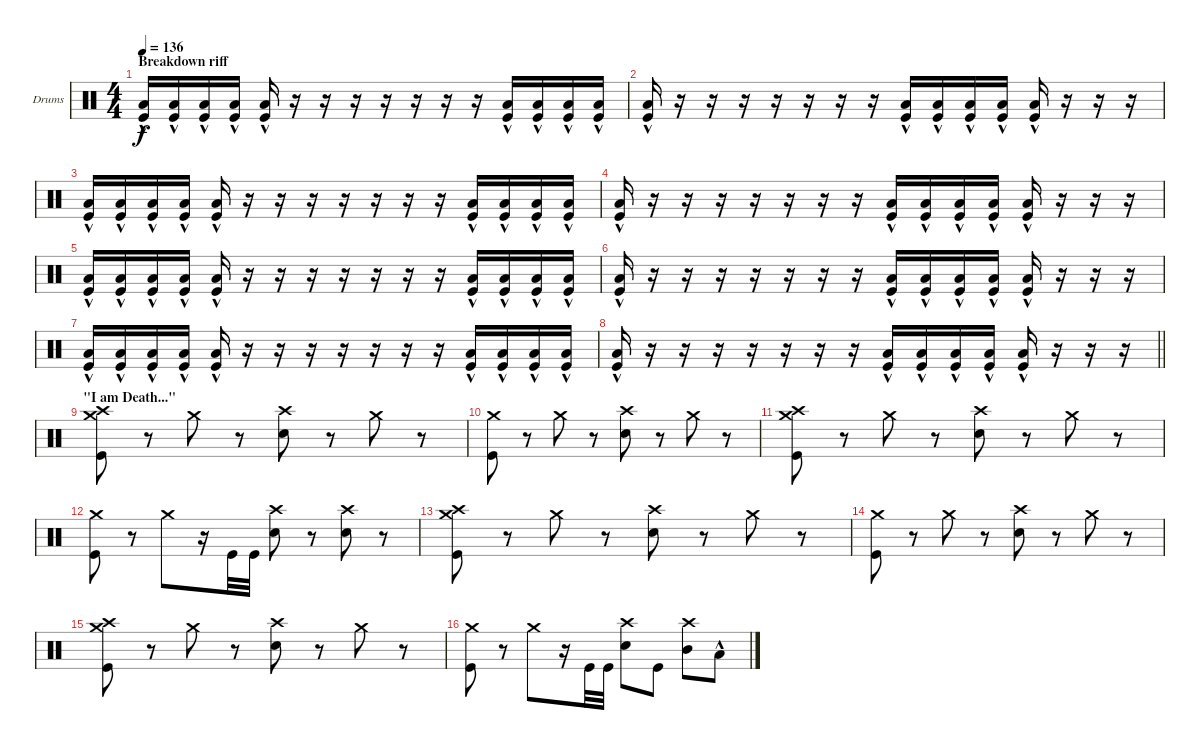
\bracketExtendMode groupsimilarinstruments
\firstSystemTrackNameOrientation horizontal
\otherSystemsTrackNameOrientation horizontal
\track ("Drumkit" "Drums") {instrument percussion}
\staff {score}
\articulation defaults
\ts (4 4)
\section ("" "Breakdown riff")
\tempo 136
\clef neutral
\scale
0.474178
\ks c
("Low Tom (hit)"{hac} "Kick (hit)").16{dy f} ("Low Tom (hit)"{hac} "Kick (hit)").16 ("Low Tom (hit)"{hac} "Kick (hit)").16 ("Low Tom (hit)"{hac} "Kick (hit)").16 ("Low Tom (hit)"{hac} "Kick (hit)").16 r.16 r.16 r.16 r.16 r.16 r.16 r.16 ("Low Tom (hit)"{hac} "Kick (hit)").16 ("Low Tom (hit)"{hac} "Kick (hit)").16 ("Low Tom (hit)"{hac} "Kick (hit)").16 ("Low Tom (hit)"{hac} "Kick (hit)").16 |
\scale
0.262911 ("Low Tom (hit)"{hac} "Kick (hit)").16 r.16 r.16 r.16 r.16 r.16 r.16 r.16 ("Low Tom (hit)"{hac} "Kick (hit)").16 ("Low Tom (hit)"{hac} "Kick (hit)").16 ("Low Tom (hit)"{hac} "Kick (hit)").16 ("Low Tom (hit)"{hac} "Kick (hit)").16 ("Low Tom (hit)"{hac} "Kick (hit)").16 r.16 r.16 r.16 |
\scale
0.262911 ("Low Tom (hit)"{hac} "Kick (hit)").16 ("Low Tom (hit)"{hac} "Kick (hit)").16 ("Low Tom (hit)"{hac} "Kick (hit)").16 ("Low Tom (hit)"{hac} "Kick (hit)").16 ("Low Tom (hit)"{hac} "Kick (hit)").16 r.16 r.16 r.16 r.16 r.16 r.16 r.16 ("Low Tom (hit)"{hac} "Kick (hit)").16 ("Low Tom (hit)"{hac} "Kick (hit)").16 ("Low Tom (hit)"{hac} "Kick (hit)").16 ("Low Tom (hit)"{hac} "Kick (hit)").16 |
\scale
0.333333 ("Low Tom (hit)"{hac} "Kick (hit)").16 r.16 r.16 r.16 r.16 r.16 r.16 r.16 ("Low Tom (hit)"{hac} "Kick (hit)").16 ("Low Tom (hit)"{hac} "Kick (hit)").16 ("Low Tom (hit)"{hac} "Kick (hit)").16 ("Low Tom (hit)"{hac} "Kick (hit)").16 ("Low Tom (hit)"{hac} "Kick (hit)").16 r.16 r.16 r.16 |
\scale
0.333333 ("Low Tom (hit)"{hac} "Kick (hit)").16 ("Low Tom (hit)"{hac} "Kick (hit)").16 ("Low Tom (hit)"{hac} "Kick (hit)").16 ("Low Tom (hit)"{hac} "Kick (hit)").16 ("Low Tom (hit)"{hac} "Kick (hit)").16 r.16 r.16 r.16 r.16 r.16 r.16 r.16 ("Low Tom (hit)"{hac} "Kick (hit)").16 ("Low Tom (hit)"{hac} "Kick (hit)").16 ("Low Tom (hit)"{hac} "Kick (hit)").16 ("Low Tom (hit)"{hac} "Kick (hit)").16 |
\scale
0.333333 ("Low Tom (hit)"{hac} "Kick (hit)").16 r.16 r.16 r.16 r.16 r.16 r.16 r.16 ("Low Tom (hit)"{hac} "Kick (hit)").16 ("Low Tom (hit)"{hac} "Kick (hit)").16 ("Low Tom (hit)"{hac} "Kick (hit)").16 ("Low Tom (hit)"{hac} "Kick (hit)").16 ("Low Tom (hit)"{hac} "Kick (hit)").16 r.16 r.16 r.16 |
\scale
0.333333 ("Low Tom (hit)"{hac} "Kick (hit)").16 ("Low Tom (hit)"{hac} "Kick (hit)").16 ("Low Tom (hit)"{hac} "Kick (hit)").16 ("Low Tom (hit)"{hac} "Kick (hit)").16 ("Low Tom (hit)"{hac} "Kick (hit)").16 r.16 r.16 r.16 r.16 r.16 r.16 r.16 ("Low Tom (hit)"{hac} "Kick (hit)").16 ("Low Tom (hit)"{hac} "Kick (hit)").16 ("Low Tom (hit)"{hac} "Kick (hit)").16 ("Low Tom (hit)"{hac} "Kick (hit)").16 |
\scale
0.333333
\barLineRight lightlight
("Low Tom (hit)"{hac} "Kick (hit)").16 r.16 r.16 r.16 r.16 r.16 r.16 r.16 ("Low Tom (hit)"{hac} "Kick (hit)").16 ("Low Tom (hit)"{hac} "Kick (hit)").16 ("Low Tom (hit)"{hac} "Kick (hit)").16 ("Low Tom (hit)"{hac} "Kick (hit)").16 ("Low Tom (hit)"{hac} "Kick (hit)").16 r.16 r.16 r.16 |
\section ("" "\"I am Death...\"")
\scale
0.333333 ("Kick (hit)" "Crash medium (hit)" "Crash high (hit)").8 r.8 "Crash medium (hit)".8 r.8 ("Snare (hit) 2" "Crash high (hit)").8 r.8 "Crash medium (hit)".8 r.8 |
\scale
0.333333 ("Kick (hit)" "Crash medium (hit)").8 r.8 "Crash medium (hit)".8 r.8 ("Snare (hit) 2" "Crash high (hit)").8 r.8 "Crash medium (hit)".8 r.8 |
\scale
0.333333 ("Kick (hit)" "Crash medium (hit)" "Crash high (hit)").8 r.8 "Crash medium (hit)".8 r.8 ("Snare (hit) 2" "Crash high (hit)").8 r.8 "Crash medium (hit)".8 r.8 |
\scale
0.333333 ("Kick (hit)" "Crash medium (hit)").8 r.8 "Crash medium (hit)".8 r.16 "Kick (hit)".32 "Kick (hit)".32 ("Snare (hit) 2" "Crash high (hit)").8 r.8 ("Snare (hit) 2" "Crash high (hit)").8 r.8 |
\scale
0.333333 ("Kick (hit)" "Crash medium (hit)" "Crash high (hit)").8 r.8 "Crash medium (hit)".8 r.8 ("Snare (hit) 2" "Crash high (hit)").8 r.8 "Crash medium (hit)".8 r.8 |
\scale
0.333333 ("Kick (hit)" "Crash medium (hit)").8 r.8 "Crash medium (hit)".8 r.8 ("Snare (hit) 2" "Crash high (hit)").8 r.8 "Crash medium (hit)".8 r.8 |
\scale
0.333333 ("Kick (hit)" "Crash medium (hit)" "Crash high (hit)").8 r.8 "Crash medium (hit)".8 r.8 ("Snare (hit) 2" "Crash high (hit)").8 r.8 "Crash medium (hit)".8 r.8 |
\scale
0.333333 ("Kick (hit)" "Crash medium (hit)").8 r.8 "Crash medium (hit)".8 r.16 "Kick (hit)".32 "Kick (hit)".32 ("Snare (hit) 2" "Crash high (hit)").8 "Kick (hit)".8 ("Crash high (hit)" "Mid Tom (hit)").8 "Low Tom (hit)"{hac}.8
